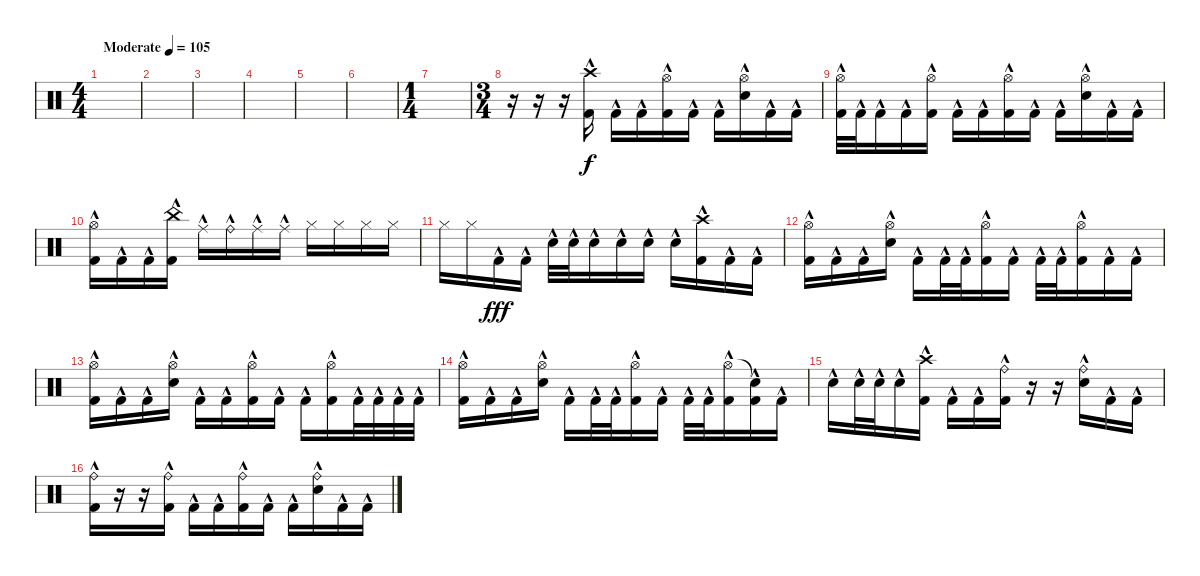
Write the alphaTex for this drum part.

\track "" {instrument percussion}
\staff {score}
\articulation defaults
\ts (4 4)
\tempo (105 "Moderate")
\clef neutral
\ks c
|
|
|
|
|
|
\ts (1 4)
|
\ts (3 4)
r.16 r.16 r.16 ("Crash high (hit)" "Kick (hit) 2"{hac}).16 "Kick (hit) 2"{hac}.16 "Kick (hit) 2"{hac}.16 ("Hi-Hat (open)" "Kick (hit) 2"{hac}).16 "Kick (hit) 2"{hac}.16 "Kick (hit) 2"{hac}.16 ("Hi-Hat (open)" "Electric Snare (hit)"{hac}).16 "Kick (hit) 2"{hac}.16 "Kick (hit) 2"{hac}.16 |
("Hi-Hat (open)" "Kick (hit) 2"{hac}).32 "Kick (hit) 2"{hac}.32 "Kick (hit) 2"{hac}.16 "Kick (hit) 2"{hac}.16 ("Hi-Hat (open)" "Kick (hit) 2"{hac}).16 "Kick (hit) 2"{hac}.16 "Kick (hit) 2"{hac}.16 ("Hi-Hat (open)" "Kick (hit) 2"{hac}).16 "Kick (hit) 2"{hac}.16 "Kick (hit) 2"{hac}.16 ("Hi-Hat (open)" "Electric Snare (hit)"{hac}).16 "Kick (hit) 2"{hac}.16 "Kick (hit) 2"{hac}.16 |
("Hi-Hat (open)" "Kick (hit) 2"{hac}).16 "Kick (hit) 2"{hac}.16 "Kick (hit) 2"{hac}.16 ("China (hit)" "Kick (hit) 2"{hac}).16 "Ride (middle)"{hac}.16 "Ride (bell)"{hac}.16 "Ride (middle)"{hac}.16 "Ride (middle)"{hac}.16 "Hi-Hat (closed)".16{dy f} "Hi-Hat (closed)".16 "Hi-Hat (closed)".16 "Hi-Hat (closed)".16 |
"Hi-Hat (closed)".16 "Hi-Hat (closed)".16 "Kick (hit) 2"{hac}.16{dy fff} "Kick (hit) 2"{hac}.16 "Electric Snare (hit)"{hac}.32 "Electric Snare (hit)"{hac}.32 "Electric Snare (hit)"{hac}.16 "Electric Snare (hit)"{hac}.16 "Electric Snare (hit)"{hac}.16 "Electric Snare (hit)"{hac}.16 ("Crash high (hit)" "Kick (hit) 2"{hac}).16 "Kick (hit) 2"{hac}.16 "Kick (hit) 2"{hac}.16 |
("Hi-Hat (open)" "Kick (hit) 2"{hac}).16 "Kick (hit) 2"{hac}.16 "Kick (hit) 2"{hac}.16 ("Hi-Hat (open)" "Electric Snare (hit)"{hac}).16 "Kick (hit) 2"{hac}.16 "Kick (hit) 2"{hac}.32 "Kick (hit) 2"{hac}.32 ("Hi-Hat (open)" "Kick (hit) 2"{hac}).16 "Kick (hit) 2"{hac}.16 "Kick (hit) 2"{hac}.32 "Kick (hit) 2"{hac}.32 ("Hi-Hat (open)" "Kick (hit) 2"{hac}).16 "Kick (hit) 2"{hac}.16 "Kick (hit) 2"{hac}.16 |
("Hi-Hat (open)" "Kick (hit) 2"{hac}).16 "Kick (hit) 2"{hac}.16 "Kick (hit) 2"{hac}.16 ("Hi-Hat (open)" "Electric Snare (hit)"{hac}).16 "Kick (hit) 2"{hac}.16 "Kick (hit) 2"{hac}.16 ("Hi-Hat (open)" "Kick (hit) 2"{hac}).16 "Kick (hit) 2"{hac}.16 "Kick (hit) 2"{hac}.16 ("Hi-Hat (open)" "Kick (hit) 2"{hac}).16 "Kick (hit) 2"{hac}.32 "Kick (hit) 2"{hac}.32 "Kick (hit) 2"{hac}.32 "Kick (hit) 2"{hac}.32 |
("Hi-Hat (open)" "Kick (hit) 2"{hac}).16 "Kick (hit) 2"{hac}.16 "Kick (hit) 2"{hac}.16 ("Hi-Hat (open)" "Electric Snare (hit)"{hac}).16 "Kick (hit) 2"{hac}.16 "Kick (hit) 2"{hac}.32 "Kick (hit) 2"{hac}.32 ("Hi-Hat (open)" "Kick (hit) 2"{hac}).16 "Kick (hit) 2"{hac}.16 "Kick (hit) 2"{hac}.32 "Kick (hit) 2"{hac}.32 ("Hi-Hat (open)" "Kick (hit) 2"{hac}).16 ("Snare (hit)"{t} "Kick (hit) 2"{hac}).16 "Kick (hit) 2"{hac}.16 |
"Electric Snare (hit)"{hac}.16 "Electric Snare (hit)"{hac}.32 "Electric Snare (hit)"{hac}.32 "Electric Snare (hit)"{hac}.16 ("Crash high (hit)" "Kick (hit) 2"{hac}).16 "Kick (hit) 2"{hac}.16 "Kick (hit) 2"{hac}.16 ("Ride (bell)" "Kick (hit) 2"{hac}).16 r.16 r.16 ("Ride (bell)" "Electric Snare (hit)"{hac}).16 "Kick (hit) 2"{hac}.16 "Kick (hit) 2"{hac}.16 |
("Kick (hit) 2"{hac} "Ride (bell)").16 r.16 r.16 ("Kick (hit) 2"{hac} "Ride (bell)").16 "Kick (hit) 2"{hac}.16 "Kick (hit) 2"{hac}.16 ("Kick (hit) 2"{hac} "Ride (bell)").16 "Kick (hit) 2"{hac}.16 "Kick (hit) 2"{hac}.16 ("Electric Snare (hit)"{hac} "Ride (bell)").16 "Kick (hit) 2"{hac}.16 "Kick (hit) 2"{hac}.16
